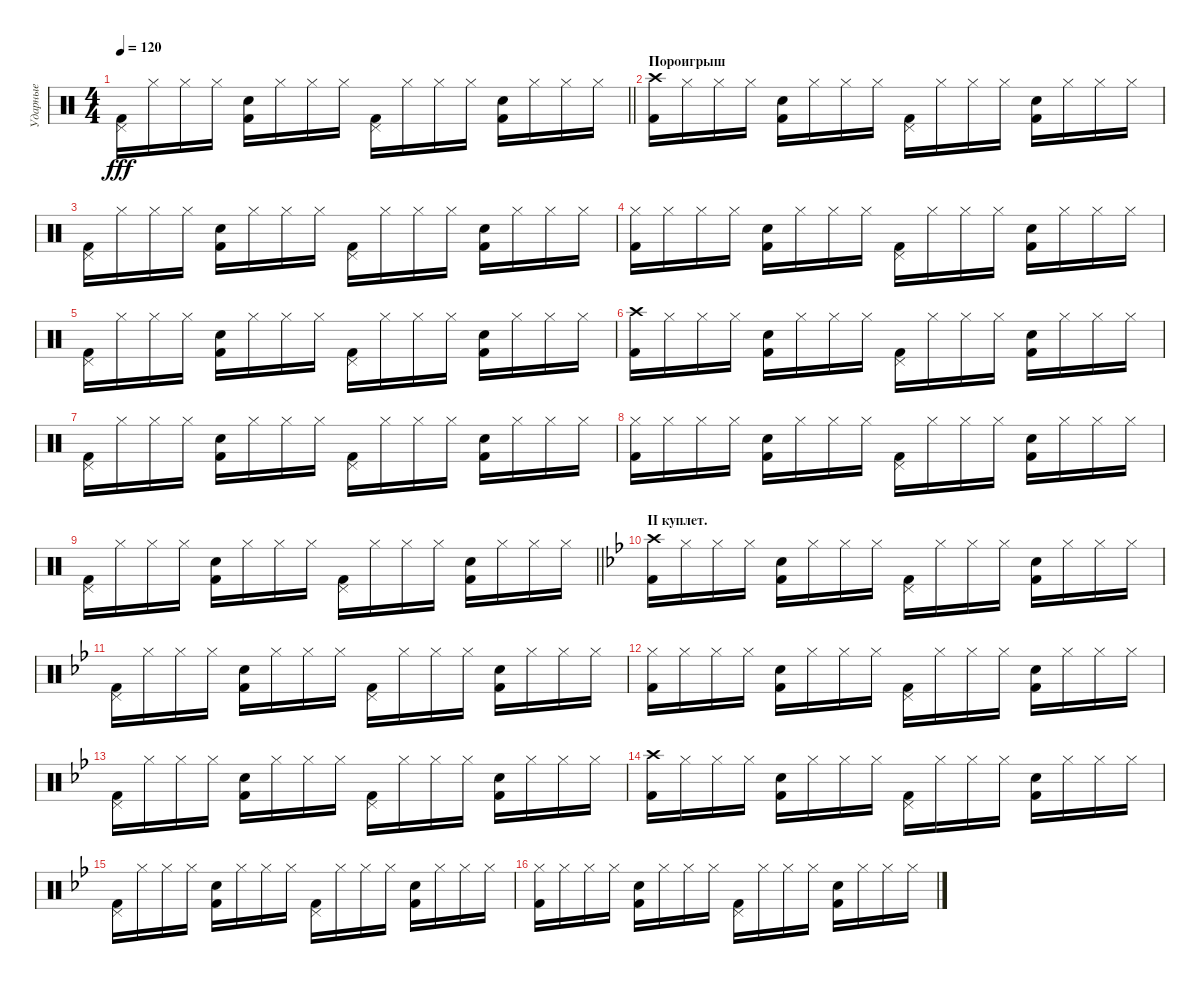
\track ("Ударные" "Ударные") {instrument percussion}
\staff {score}
\articulation defaults
\ts (4 4)
\tempo 120
\clef neutral
\barLineRight lightlight
\ks c
("Pedal Hi-Hat (hit)" "Kick (hit) 2").16{dy fff} "Hi-Hat (closed)".16 "Hi-Hat (closed)".16 "Hi-Hat (closed)".16 ("Snare (hit) 2" "Kick (hit) 2").16 "Hi-Hat (closed)".16 "Hi-Hat (closed)".16 "Hi-Hat (closed)".16 ("Pedal Hi-Hat (hit)" "Kick (hit) 2").16 "Hi-Hat (closed)".16 "Hi-Hat (closed)".16 "Hi-Hat (closed)".16 ("Snare (hit) 2" "Kick (hit) 2").16 "Hi-Hat (closed)".16 "Hi-Hat (closed)".16 "Hi-Hat (closed)".16 |
\section ("" "Пороигрыш")
("Crash high (hit)" "Kick (hit) 2").16 "Hi-Hat (closed)".16 "Hi-Hat (closed)".16 "Hi-Hat (closed)".16 ("Snare (hit) 2" "Kick (hit) 2").16 "Hi-Hat (closed)".16 "Hi-Hat (closed)".16 "Hi-Hat (closed)".16 ("Pedal Hi-Hat (hit)" "Kick (hit) 2").16 "Hi-Hat (closed)".16 "Hi-Hat (closed)".16 "Hi-Hat (closed)".16 ("Snare (hit) 2" "Kick (hit) 2").16 "Hi-Hat (closed)".16 "Hi-Hat (closed)".16 "Hi-Hat (closed)".16 |
("Pedal Hi-Hat (hit)" "Kick (hit) 2").16 "Hi-Hat (closed)".16 "Hi-Hat (closed)".16 "Hi-Hat (closed)".16 ("Snare (hit) 2" "Kick (hit) 2").16 "Hi-Hat (closed)".16 "Hi-Hat (closed)".16 "Hi-Hat (closed)".16 ("Pedal Hi-Hat (hit)" "Kick (hit) 2").16 "Hi-Hat (closed)".16 "Hi-Hat (closed)".16 "Hi-Hat (closed)".16 ("Snare (hit) 2" "Kick (hit) 2").16 "Hi-Hat (closed)".16 "Hi-Hat (closed)".16 "Hi-Hat (closed)".16 |
("Hi-Hat (closed)" "Kick (hit) 2").16 "Hi-Hat (closed)".16 "Hi-Hat (closed)".16 "Hi-Hat (closed)".16 ("Snare (hit) 2" "Kick (hit) 2").16 "Hi-Hat (closed)".16 "Hi-Hat (closed)".16 "Hi-Hat (closed)".16 ("Pedal Hi-Hat (hit)" "Kick (hit) 2").16 "Hi-Hat (closed)".16 "Hi-Hat (closed)".16 "Hi-Hat (closed)".16 ("Snare (hit) 2" "Kick (hit) 2").16 "Hi-Hat (closed)".16 "Hi-Hat (closed)".16 "Hi-Hat (closed)".16 |
("Pedal Hi-Hat (hit)" "Kick (hit) 2").16 "Hi-Hat (closed)".16 "Hi-Hat (closed)".16 "Hi-Hat (closed)".16 ("Snare (hit) 2" "Kick (hit) 2").16 "Hi-Hat (closed)".16 "Hi-Hat (closed)".16 "Hi-Hat (closed)".16 ("Pedal Hi-Hat (hit)" "Kick (hit) 2").16 "Hi-Hat (closed)".16 "Hi-Hat (closed)".16 "Hi-Hat (closed)".16 ("Snare (hit) 2" "Kick (hit) 2").16 "Hi-Hat (closed)".16 "Hi-Hat (closed)".16 "Hi-Hat (closed)".16 |
("Crash high (hit)" "Kick (hit) 2").16 "Hi-Hat (closed)".16 "Hi-Hat (closed)".16 "Hi-Hat (closed)".16 ("Snare (hit) 2" "Kick (hit) 2").16 "Hi-Hat (closed)".16 "Hi-Hat (closed)".16 "Hi-Hat (closed)".16 ("Pedal Hi-Hat (hit)" "Kick (hit) 2").16 "Hi-Hat (closed)".16 "Hi-Hat (closed)".16 "Hi-Hat (closed)".16 ("Snare (hit) 2" "Kick (hit) 2").16 "Hi-Hat (closed)".16 "Hi-Hat (closed)".16 "Hi-Hat (closed)".16 |
("Pedal Hi-Hat (hit)" "Kick (hit) 2").16 "Hi-Hat (closed)".16 "Hi-Hat (closed)".16 "Hi-Hat (closed)".16 ("Snare (hit) 2" "Kick (hit) 2").16 "Hi-Hat (closed)".16 "Hi-Hat (closed)".16 "Hi-Hat (closed)".16 ("Pedal Hi-Hat (hit)" "Kick (hit) 2").16 "Hi-Hat (closed)".16 "Hi-Hat (closed)".16 "Hi-Hat (closed)".16 ("Snare (hit) 2" "Kick (hit) 2").16 "Hi-Hat (closed)".16 "Hi-Hat (closed)".16 "Hi-Hat (closed)".16 |
("Hi-Hat (closed)" "Kick (hit) 2").16 "Hi-Hat (closed)".16 "Hi-Hat (closed)".16 "Hi-Hat (closed)".16 ("Snare (hit) 2" "Kick (hit) 2").16 "Hi-Hat (closed)".16 "Hi-Hat (closed)".16 "Hi-Hat (closed)".16 ("Pedal Hi-Hat (hit)" "Kick (hit) 2").16 "Hi-Hat (closed)".16 "Hi-Hat (closed)".16 "Hi-Hat (closed)".16 ("Snare (hit) 2" "Kick (hit) 2").16 "Hi-Hat (closed)".16 "Hi-Hat (closed)".16 "Hi-Hat (closed)".16 |
\barLineRight lightlight
("Pedal Hi-Hat (hit)" "Kick (hit) 2").16 "Hi-Hat (closed)".16 "Hi-Hat (closed)".16 "Hi-Hat (closed)".16 ("Snare (hit) 2" "Kick (hit) 2").16 "Hi-Hat (closed)".16 "Hi-Hat (closed)".16 "Hi-Hat (closed)".16 ("Pedal Hi-Hat (hit)" "Kick (hit) 2").16 "Hi-Hat (closed)".16 "Hi-Hat (closed)".16 "Hi-Hat (closed)".16 ("Snare (hit) 2" "Kick (hit) 2").16 "Hi-Hat (closed)".16 "Hi-Hat (closed)".16 "Hi-Hat (closed)".16 |
\section ("" "II куплет. ")
\ks gminor
("Crash high (hit)" "Kick (hit) 2").16 "Hi-Hat (closed)".16 "Hi-Hat (closed)".16 "Hi-Hat (closed)".16 ("Snare (hit) 2" "Kick (hit) 2").16 "Hi-Hat (closed)".16 "Hi-Hat (closed)".16 "Hi-Hat (closed)".16 ("Pedal Hi-Hat (hit)" "Kick (hit) 2").16 "Hi-Hat (closed)".16 "Hi-Hat (closed)".16 "Hi-Hat (closed)".16 ("Snare (hit) 2" "Kick (hit) 2").16 "Hi-Hat (closed)".16 "Hi-Hat (closed)".16 "Hi-Hat (closed)".16 |
("Pedal Hi-Hat (hit)" "Kick (hit) 2").16 "Hi-Hat (closed)".16 "Hi-Hat (closed)".16 "Hi-Hat (closed)".16 ("Snare (hit) 2" "Kick (hit) 2").16 "Hi-Hat (closed)".16 "Hi-Hat (closed)".16 "Hi-Hat (closed)".16 ("Pedal Hi-Hat (hit)" "Kick (hit) 2").16 "Hi-Hat (closed)".16 "Hi-Hat (closed)".16 "Hi-Hat (closed)".16 ("Snare (hit) 2" "Kick (hit) 2").16 "Hi-Hat (closed)".16 "Hi-Hat (closed)".16 "Hi-Hat (closed)".16 |
("Hi-Hat (closed)" "Kick (hit) 2").16 "Hi-Hat (closed)".16 "Hi-Hat (closed)".16 "Hi-Hat (closed)".16 ("Snare (hit) 2" "Kick (hit) 2").16 "Hi-Hat (closed)".16 "Hi-Hat (closed)".16 "Hi-Hat (closed)".16 ("Pedal Hi-Hat (hit)" "Kick (hit) 2").16 "Hi-Hat (closed)".16 "Hi-Hat (closed)".16 "Hi-Hat (closed)".16 ("Snare (hit) 2" "Kick (hit) 2").16 "Hi-Hat (closed)".16 "Hi-Hat (closed)".16 "Hi-Hat (closed)".16 |
("Pedal Hi-Hat (hit)" "Kick (hit) 2").16 "Hi-Hat (closed)".16 "Hi-Hat (closed)".16 "Hi-Hat (closed)".16 ("Snare (hit) 2" "Kick (hit) 2").16 "Hi-Hat (closed)".16 "Hi-Hat (closed)".16 "Hi-Hat (closed)".16 ("Pedal Hi-Hat (hit)" "Kick (hit) 2").16 "Hi-Hat (closed)".16 "Hi-Hat (closed)".16 "Hi-Hat (closed)".16 ("Snare (hit) 2" "Kick (hit) 2").16 "Hi-Hat (closed)".16 "Hi-Hat (closed)".16 "Hi-Hat (closed)".16 |
("Crash high (hit)" "Kick (hit) 2").16 "Hi-Hat (closed)".16 "Hi-Hat (closed)".16 "Hi-Hat (closed)".16 ("Snare (hit) 2" "Kick (hit) 2").16 "Hi-Hat (closed)".16 "Hi-Hat (closed)".16 "Hi-Hat (closed)".16 ("Pedal Hi-Hat (hit)" "Kick (hit) 2").16 "Hi-Hat (closed)".16 "Hi-Hat (closed)".16 "Hi-Hat (closed)".16 ("Snare (hit) 2" "Kick (hit) 2").16 "Hi-Hat (closed)".16 "Hi-Hat (closed)".16 "Hi-Hat (closed)".16 |
("Pedal Hi-Hat (hit)" "Kick (hit) 2").16 "Hi-Hat (closed)".16 "Hi-Hat (closed)".16 "Hi-Hat (closed)".16 ("Snare (hit) 2" "Kick (hit) 2").16 "Hi-Hat (closed)".16 "Hi-Hat (closed)".16 "Hi-Hat (closed)".16 ("Pedal Hi-Hat (hit)" "Kick (hit) 2").16 "Hi-Hat (closed)".16 "Hi-Hat (closed)".16 "Hi-Hat (closed)".16 ("Snare (hit) 2" "Kick (hit) 2").16 "Hi-Hat (closed)".16 "Hi-Hat (closed)".16 "Hi-Hat (closed)".16 |
("Hi-Hat (closed)" "Kick (hit) 2").16 "Hi-Hat (closed)".16 "Hi-Hat (closed)".16 "Hi-Hat (closed)".16 ("Snare (hit) 2" "Kick (hit) 2").16 "Hi-Hat (closed)".16 "Hi-Hat (closed)".16 "Hi-Hat (closed)".16 ("Pedal Hi-Hat (hit)" "Kick (hit) 2").16 "Hi-Hat (closed)".16 "Hi-Hat (closed)".16 "Hi-Hat (closed)".16 ("Snare (hit) 2" "Kick (hit) 2").16 "Hi-Hat (closed)".16 "Hi-Hat (closed)".16 "Hi-Hat (closed)".16
